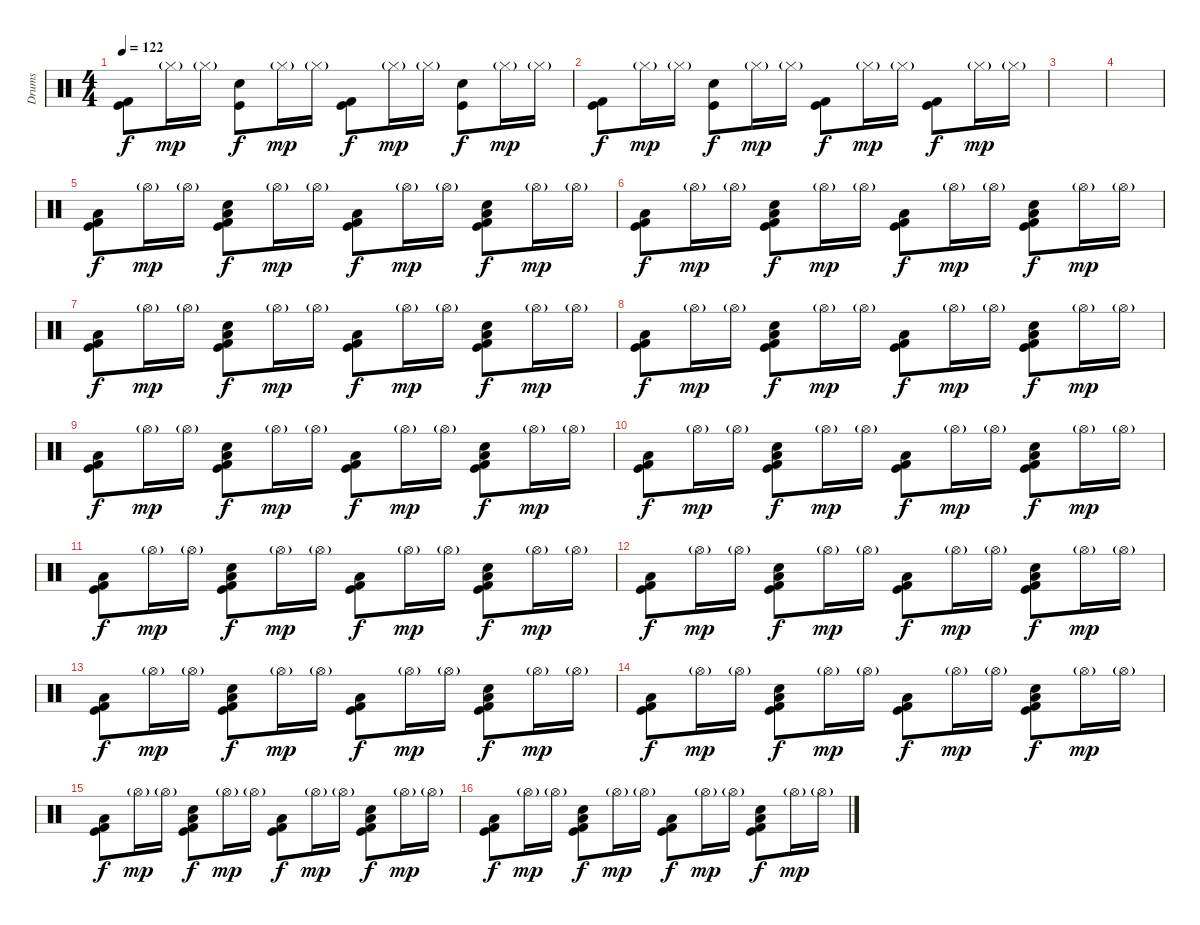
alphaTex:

\track ("Drums" "Drums") {instrument percussion}
\staff {score}
\articulation defaults
\ts (4 4)
\tempo 122
\clef neutral
\ks c
("Kick (hit)" "Kick (hit) 2").8{dy f} "Hi-Hat (closed)"{g}.16{dy mp} "Hi-Hat (closed)"{g}.16 ("Electric Snare (hit)" "Kick (hit)").8{dy f} "Hi-Hat (closed)"{g}.16{dy mp} "Hi-Hat (closed)"{g}.16 ("Kick (hit)" "Kick (hit) 2").8{dy f} "Hi-Hat (closed)"{g}.16{dy mp} "Hi-Hat (closed)"{g}.16 ("Electric Snare (hit)" "Kick (hit)").8{dy f} "Hi-Hat (closed)"{g}.16{dy mp} "Hi-Hat (closed)"{g}.16 |
("Kick (hit)" "Kick (hit) 2").8{dy f} "Hi-Hat (closed)"{g}.16{dy mp} "Hi-Hat (closed)"{g}.16 ("Electric Snare (hit)" "Kick (hit)").8{dy f} "Hi-Hat (closed)"{g}.16{dy mp} "Hi-Hat (closed)"{g}.16 ("Kick (hit)" "Kick (hit) 2").8{dy f} "Hi-Hat (closed)"{g}.16{dy mp} "Hi-Hat (closed)"{g}.16 ("Kick (hit)" "Kick (hit) 2").8{dy f} "Hi-Hat (closed)"{g}.16{dy mp} "Hi-Hat (closed)"{g}.16 |
|
|
("Kick (hit)" "Kick (hit) 2" "Low Floor Tom (hit)").8{dy f} "Hi-Hat (open)"{g}.16{dy mp} "Hi-Hat (open)"{g}.16 ("Electric Snare (hit)" "Kick (hit)" "Kick (hit) 2" "Low Floor Tom (hit)").8{dy f} "Hi-Hat (open)"{g}.16{dy mp} "Hi-Hat (open)"{g}.16 ("Kick (hit)" "Kick (hit) 2" "Low Floor Tom (hit)").8{dy f} "Hi-Hat (open)"{g}.16{dy mp} "Hi-Hat (open)"{g}.16 ("Electric Snare (hit)" "Kick (hit)" "Kick (hit) 2" "Low Floor Tom (hit)").8{dy f} "Hi-Hat (open)"{g}.16{dy mp} "Hi-Hat (open)"{g}.16 |
("Kick (hit)" "Kick (hit) 2" "Low Floor Tom (hit)").8{dy f} "Hi-Hat (open)"{g}.16{dy mp} "Hi-Hat (open)"{g}.16 ("Electric Snare (hit)" "Kick (hit)" "Kick (hit) 2" "Low Floor Tom (hit)").8{dy f} "Hi-Hat (open)"{g}.16{dy mp} "Hi-Hat (open)"{g}.16 ("Kick (hit)" "Kick (hit) 2" "Low Floor Tom (hit)").8{dy f} "Hi-Hat (open)"{g}.16{dy mp} "Hi-Hat (open)"{g}.16 ("Electric Snare (hit)" "Kick (hit)" "Kick (hit) 2" "Low Floor Tom (hit)").8{dy f} "Hi-Hat (open)"{g}.16{dy mp} "Hi-Hat (open)"{g}.16 |
("Kick (hit)" "Kick (hit) 2" "Low Floor Tom (hit)").8{dy f} "Hi-Hat (open)"{g}.16{dy mp} "Hi-Hat (open)"{g}.16 ("Electric Snare (hit)" "Kick (hit)" "Kick (hit) 2" "Low Floor Tom (hit)").8{dy f} "Hi-Hat (open)"{g}.16{dy mp} "Hi-Hat (open)"{g}.16 ("Kick (hit)" "Kick (hit) 2" "Low Floor Tom (hit)").8{dy f} "Hi-Hat (open)"{g}.16{dy mp} "Hi-Hat (open)"{g}.16 ("Electric Snare (hit)" "Kick (hit)" "Kick (hit) 2" "Low Floor Tom (hit)").8{dy f} "Hi-Hat (open)"{g}.16{dy mp} "Hi-Hat (open)"{g}.16 |
("Kick (hit)" "Kick (hit) 2" "Low Floor Tom (hit)").8{dy f} "Hi-Hat (open)"{g}.16{dy mp} "Hi-Hat (open)"{g}.16 ("Electric Snare (hit)" "Kick (hit)" "Kick (hit) 2" "Low Floor Tom (hit)").8{dy f} "Hi-Hat (open)"{g}.16{dy mp} "Hi-Hat (open)"{g}.16 ("Kick (hit)" "Kick (hit) 2" "Low Floor Tom (hit)").8{dy f} "Hi-Hat (open)"{g}.16{dy mp} "Hi-Hat (open)"{g}.16 ("Electric Snare (hit)" "Kick (hit)" "Kick (hit) 2" "Low Floor Tom (hit)").8{dy f} "Hi-Hat (open)"{g}.16{dy mp} "Hi-Hat (open)"{g}.16 |
("Kick (hit)" "Kick (hit) 2" "Low Floor Tom (hit)").8{dy f} "Hi-Hat (open)"{g}.16{dy mp} "Hi-Hat (open)"{g}.16 ("Electric Snare (hit)" "Kick (hit)" "Kick (hit) 2" "Low Floor Tom (hit)").8{dy f} "Hi-Hat (open)"{g}.16{dy mp} "Hi-Hat (open)"{g}.16 ("Kick (hit)" "Kick (hit) 2" "Low Floor Tom (hit)").8{dy f} "Hi-Hat (open)"{g}.16{dy mp} "Hi-Hat (open)"{g}.16 ("Electric Snare (hit)" "Kick (hit)" "Kick (hit) 2" "Low Floor Tom (hit)").8{dy f} "Hi-Hat (open)"{g}.16{dy mp} "Hi-Hat (open)"{g}.16 |
("Kick (hit)" "Kick (hit) 2" "Low Floor Tom (hit)").8{dy f} "Hi-Hat (open)"{g}.16{dy mp} "Hi-Hat (open)"{g}.16 ("Electric Snare (hit)" "Kick (hit)" "Kick (hit) 2" "Low Floor Tom (hit)").8{dy f} "Hi-Hat (open)"{g}.16{dy mp} "Hi-Hat (open)"{g}.16 ("Kick (hit)" "Kick (hit) 2" "Low Floor Tom (hit)").8{dy f} "Hi-Hat (open)"{g}.16{dy mp} "Hi-Hat (open)"{g}.16 ("Electric Snare (hit)" "Kick (hit)" "Kick (hit) 2" "Low Floor Tom (hit)").8{dy f} "Hi-Hat (open)"{g}.16{dy mp} "Hi-Hat (open)"{g}.16 |
("Kick (hit)" "Kick (hit) 2" "Low Floor Tom (hit)").8{dy f} "Hi-Hat (open)"{g}.16{dy mp} "Hi-Hat (open)"{g}.16 ("Electric Snare (hit)" "Kick (hit)" "Kick (hit) 2" "Low Floor Tom (hit)").8{dy f} "Hi-Hat (open)"{g}.16{dy mp} "Hi-Hat (open)"{g}.16 ("Kick (hit)" "Kick (hit) 2" "Low Floor Tom (hit)").8{dy f} "Hi-Hat (open)"{g}.16{dy mp} "Hi-Hat (open)"{g}.16 ("Electric Snare (hit)" "Kick (hit)" "Kick (hit) 2" "Low Floor Tom (hit)").8{dy f} "Hi-Hat (open)"{g}.16{dy mp} "Hi-Hat (open)"{g}.16 |
("Kick (hit)" "Kick (hit) 2" "Low Floor Tom (hit)").8{dy f} "Hi-Hat (open)"{g}.16{dy mp} "Hi-Hat (open)"{g}.16 ("Electric Snare (hit)" "Kick (hit)" "Kick (hit) 2" "Low Floor Tom (hit)").8{dy f} "Hi-Hat (open)"{g}.16{dy mp} "Hi-Hat (open)"{g}.16 ("Kick (hit)" "Kick (hit) 2" "Low Floor Tom (hit)").8{dy f} "Hi-Hat (open)"{g}.16{dy mp} "Hi-Hat (open)"{g}.16 ("Electric Snare (hit)" "Kick (hit)" "Kick (hit) 2" "Low Floor Tom (hit)").8{dy f} "Hi-Hat (open)"{g}.16{dy mp} "Hi-Hat (open)"{g}.16 |
("Kick (hit)" "Kick (hit) 2" "Low Floor Tom (hit)").8{dy f} "Hi-Hat (open)"{g}.16{dy mp} "Hi-Hat (open)"{g}.16 ("Electric Snare (hit)" "Kick (hit)" "Kick (hit) 2" "Low Floor Tom (hit)").8{dy f} "Hi-Hat (open)"{g}.16{dy mp} "Hi-Hat (open)"{g}.16 ("Kick (hit)" "Kick (hit) 2" "Low Floor Tom (hit)").8{dy f} "Hi-Hat (open)"{g}.16{dy mp} "Hi-Hat (open)"{g}.16 ("Electric Snare (hit)" "Kick (hit)" "Kick (hit) 2" "Low Floor Tom (hit)").8{dy f} "Hi-Hat (open)"{g}.16{dy mp} "Hi-Hat (open)"{g}.16 |
("Kick (hit)" "Kick (hit) 2" "Low Floor Tom (hit)").8{dy f} "Hi-Hat (open)"{g}.16{dy mp} "Hi-Hat (open)"{g}.16 ("Electric Snare (hit)" "Kick (hit)" "Kick (hit) 2" "Low Floor Tom (hit)").8{dy f} "Hi-Hat (open)"{g}.16{dy mp} "Hi-Hat (open)"{g}.16 ("Kick (hit)" "Kick (hit) 2" "Low Floor Tom (hit)").8{dy f} "Hi-Hat (open)"{g}.16{dy mp} "Hi-Hat (open)"{g}.16 ("Electric Snare (hit)" "Kick (hit)" "Kick (hit) 2" "Low Floor Tom (hit)").8{dy f} "Hi-Hat (open)"{g}.16{dy mp} "Hi-Hat (open)"{g}.16 |
("Kick (hit)" "Kick (hit) 2" "Low Floor Tom (hit)").8{dy f} "Hi-Hat (open)"{g}.16{dy mp} "Hi-Hat (open)"{g}.16 ("Electric Snare (hit)" "Kick (hit)" "Kick (hit) 2" "Low Floor Tom (hit)").8{dy f} "Hi-Hat (open)"{g}.16{dy mp} "Hi-Hat (open)"{g}.16 ("Kick (hit)" "Kick (hit) 2" "Low Floor Tom (hit)").8{dy f} "Hi-Hat (open)"{g}.16{dy mp} "Hi-Hat (open)"{g}.16 ("Electric Snare (hit)" "Kick (hit)" "Kick (hit) 2" "Low Floor Tom (hit)").8{dy f} "Hi-Hat (open)"{g}.16{dy mp} "Hi-Hat (open)"{g}.16 |
("Kick (hit)" "Kick (hit) 2" "Low Floor Tom (hit)").8{dy f} "Hi-Hat (open)"{g}.16{dy mp} "Hi-Hat (open)"{g}.16 ("Electric Snare (hit)" "Kick (hit)" "Kick (hit) 2" "Low Floor Tom (hit)").8{dy f} "Hi-Hat (open)"{g}.16{dy mp} "Hi-Hat (open)"{g}.16 ("Kick (hit)" "Kick (hit) 2" "Low Floor Tom (hit)").8{dy f} "Hi-Hat (open)"{g}.16{dy mp} "Hi-Hat (open)"{g}.16 ("Electric Snare (hit)" "Kick (hit)" "Kick (hit) 2" "Low Floor Tom (hit)").8{dy f} "Hi-Hat (open)"{g}.16{dy mp} "Hi-Hat (open)"{g}.16
